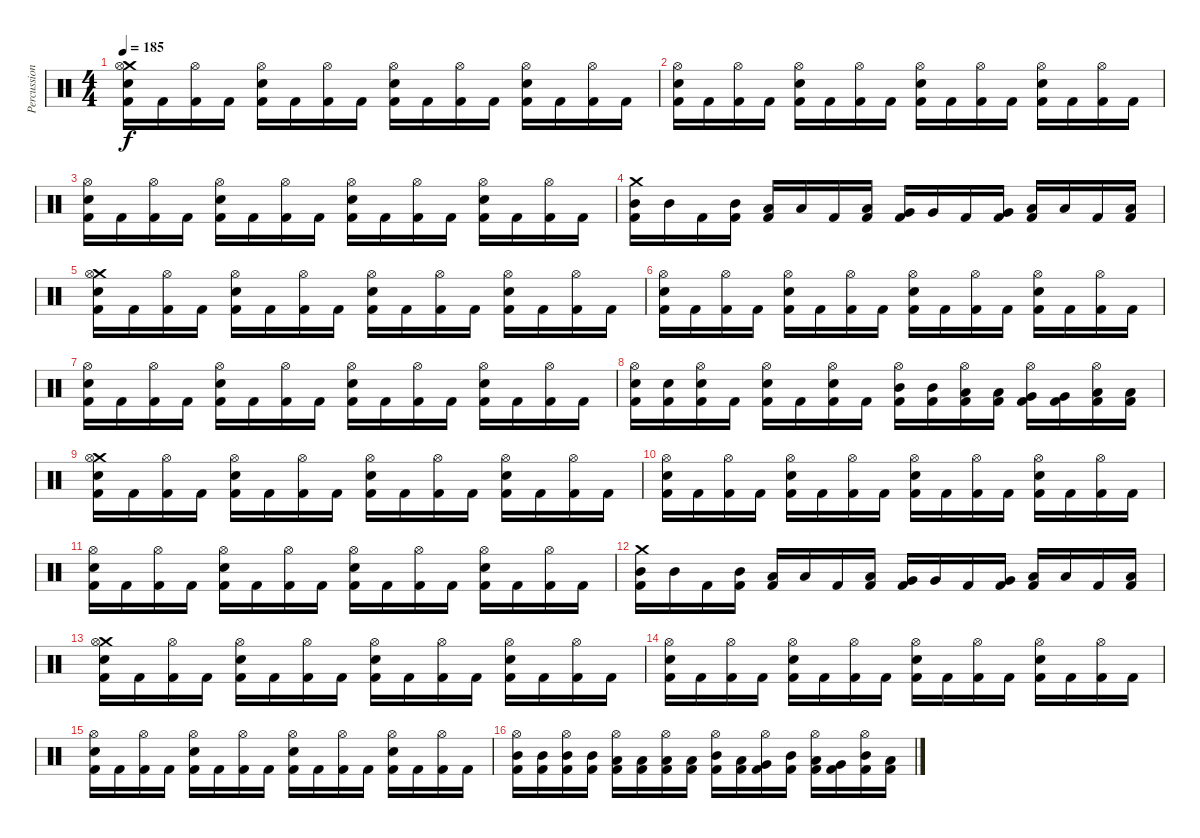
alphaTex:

\track ("Percussion" "Percussion") {instrument percussion}
\staff {score}
\articulation defaults
\ts (4 4)
\tempo 185
\clef neutral
\ks c
("Crash medium (hit)" "Hi-Hat (open)" "Electric Snare (hit)" "Kick (hit) 2").16{dy f} "Kick (hit) 2".16 ("Hi-Hat (open)" "Kick (hit) 2").16 "Kick (hit) 2".16 ("Hi-Hat (open)" "Electric Snare (hit)" "Kick (hit) 2").16 "Kick (hit) 2".16 ("Hi-Hat (open)" "Kick (hit) 2").16 "Kick (hit) 2".16 ("Hi-Hat (open)" "Electric Snare (hit)" "Kick (hit) 2").16 "Kick (hit) 2".16 ("Hi-Hat (open)" "Kick (hit) 2").16 "Kick (hit) 2".16 ("Hi-Hat (open)" "Electric Snare (hit)" "Kick (hit) 2").16 "Kick (hit) 2".16 ("Hi-Hat (open)" "Kick (hit) 2").16 "Kick (hit) 2".16 |
("Hi-Hat (open)" "Electric Snare (hit)" "Kick (hit) 2").16 "Kick (hit) 2".16 ("Hi-Hat (open)" "Kick (hit) 2").16 "Kick (hit) 2".16 ("Hi-Hat (open)" "Electric Snare (hit)" "Kick (hit) 2").16 "Kick (hit) 2".16 ("Hi-Hat (open)" "Kick (hit) 2").16 "Kick (hit) 2".16 ("Hi-Hat (open)" "Electric Snare (hit)" "Kick (hit) 2").16 "Kick (hit) 2".16 ("Hi-Hat (open)" "Kick (hit) 2").16 "Kick (hit) 2".16 ("Hi-Hat (open)" "Electric Snare (hit)" "Kick (hit) 2").16 "Kick (hit) 2".16 ("Hi-Hat (open)" "Kick (hit) 2").16 "Kick (hit) 2".16 |
("Hi-Hat (open)" "Electric Snare (hit)" "Kick (hit) 2").16 "Kick (hit) 2".16 ("Hi-Hat (open)" "Kick (hit) 2").16 "Kick (hit) 2".16 ("Hi-Hat (open)" "Electric Snare (hit)" "Kick (hit) 2").16 "Kick (hit) 2".16 ("Hi-Hat (open)" "Kick (hit) 2").16 "Kick (hit) 2".16 ("Hi-Hat (open)" "Electric Snare (hit)" "Kick (hit) 2").16 "Kick (hit) 2".16 ("Hi-Hat (open)" "Kick (hit) 2").16 "Kick (hit) 2".16 ("Hi-Hat (open)" "Electric Snare (hit)" "Kick (hit) 2").16 "Kick (hit) 2".16 ("Hi-Hat (open)" "Kick (hit) 2").16 "Kick (hit) 2".16 |
("Crash medium (hit)" "Mid Tom (hit)" "Kick (hit) 2").16 "Mid Tom (hit)".16 "Kick (hit) 2".16 ("Mid Tom (hit)" "Kick (hit) 2").16 ("Low Tom (hit)" "Kick (hit) 2").16 "Low Tom (hit)".16 "Kick (hit) 2".16 ("Low Tom (hit)" "Kick (hit) 2").16 ("Very Low Tom (hit)" "Kick (hit) 2").16 "Very Low Tom (hit)".16 "Kick (hit) 2".16 ("Very Low Tom (hit)" "Kick (hit) 2").16 ("Low Floor Tom (hit)" "Kick (hit) 2").16 "Low Floor Tom (hit)".16 "Kick (hit) 2".16 ("Low Floor Tom (hit)" "Kick (hit) 2").16 |
("Crash medium (hit)" "Hi-Hat (open)" "Electric Snare (hit)" "Kick (hit) 2").16 "Kick (hit) 2".16 ("Hi-Hat (open)" "Kick (hit) 2").16 "Kick (hit) 2".16 ("Hi-Hat (open)" "Electric Snare (hit)" "Kick (hit) 2").16 "Kick (hit) 2".16 ("Hi-Hat (open)" "Kick (hit) 2").16 "Kick (hit) 2".16 ("Hi-Hat (open)" "Electric Snare (hit)" "Kick (hit) 2").16 "Kick (hit) 2".16 ("Hi-Hat (open)" "Kick (hit) 2").16 "Kick (hit) 2".16 ("Hi-Hat (open)" "Electric Snare (hit)" "Kick (hit) 2").16 "Kick (hit) 2".16 ("Hi-Hat (open)" "Kick (hit) 2").16 "Kick (hit) 2".16 |
("Hi-Hat (open)" "Electric Snare (hit)" "Kick (hit) 2").16 "Kick (hit) 2".16 ("Hi-Hat (open)" "Kick (hit) 2").16 "Kick (hit) 2".16 ("Hi-Hat (open)" "Electric Snare (hit)" "Kick (hit) 2").16 "Kick (hit) 2".16 ("Hi-Hat (open)" "Kick (hit) 2").16 "Kick (hit) 2".16 ("Hi-Hat (open)" "Electric Snare (hit)" "Kick (hit) 2").16 "Kick (hit) 2".16 ("Hi-Hat (open)" "Kick (hit) 2").16 "Kick (hit) 2".16 ("Hi-Hat (open)" "Electric Snare (hit)" "Kick (hit) 2").16 "Kick (hit) 2".16 ("Hi-Hat (open)" "Kick (hit) 2").16 "Kick (hit) 2".16 |
("Hi-Hat (open)" "Electric Snare (hit)" "Kick (hit) 2").16 "Kick (hit) 2".16 ("Hi-Hat (open)" "Kick (hit) 2").16 "Kick (hit) 2".16 ("Hi-Hat (open)" "Electric Snare (hit)" "Kick (hit) 2").16 "Kick (hit) 2".16 ("Hi-Hat (open)" "Kick (hit) 2").16 "Kick (hit) 2".16 ("Hi-Hat (open)" "Electric Snare (hit)" "Kick (hit) 2").16 "Kick (hit) 2".16 ("Hi-Hat (open)" "Kick (hit) 2").16 "Kick (hit) 2".16 ("Hi-Hat (open)" "Electric Snare (hit)" "Kick (hit) 2").16 "Kick (hit) 2".16 ("Hi-Hat (open)" "Kick (hit) 2").16 "Kick (hit) 2".16 |
("Hi-Hat (open)" "Electric Snare (hit)" "Kick (hit) 2").16 ("Electric Snare (hit)" "Kick (hit) 2").16 ("Hi-Hat (open)" "Electric Snare (hit)" "Kick (hit) 2").16 "Kick (hit) 2".16 ("Hi-Hat (open)" "Electric Snare (hit)" "Kick (hit) 2").16 "Kick (hit) 2".16 ("Hi-Hat (open)" "Electric Snare (hit)" "Kick (hit) 2").16 "Kick (hit) 2".16 ("Hi-Hat (open)" "Mid Tom (hit)" "Kick (hit) 2").16 ("Mid Tom (hit)" "Kick (hit) 2").16 ("Hi-Hat (open)" "Low Tom (hit)" "Kick (hit) 2").16 ("Low Tom (hit)" "Kick (hit) 2").16 ("Hi-Hat (open)" "Very Low Tom (hit)" "Kick (hit) 2").16 ("Very Low Tom (hit)" "Kick (hit) 2").16 ("Hi-Hat (open)" "Low Floor Tom (hit)" "Kick (hit) 2").16 ("Low Floor Tom (hit)" "Kick (hit) 2").16 |
("Crash medium (hit)" "Hi-Hat (open)" "Electric Snare (hit)" "Kick (hit) 2").16 "Kick (hit) 2".16 ("Hi-Hat (open)" "Kick (hit) 2").16 "Kick (hit) 2".16 ("Hi-Hat (open)" "Electric Snare (hit)" "Kick (hit) 2").16 "Kick (hit) 2".16 ("Hi-Hat (open)" "Kick (hit) 2").16 "Kick (hit) 2".16 ("Hi-Hat (open)" "Electric Snare (hit)" "Kick (hit) 2").16 "Kick (hit) 2".16 ("Hi-Hat (open)" "Kick (hit) 2").16 "Kick (hit) 2".16 ("Hi-Hat (open)" "Electric Snare (hit)" "Kick (hit) 2").16 "Kick (hit) 2".16 ("Hi-Hat (open)" "Kick (hit) 2").16 "Kick (hit) 2".16 |
("Hi-Hat (open)" "Electric Snare (hit)" "Kick (hit) 2").16 "Kick (hit) 2".16 ("Hi-Hat (open)" "Kick (hit) 2").16 "Kick (hit) 2".16 ("Hi-Hat (open)" "Electric Snare (hit)" "Kick (hit) 2").16 "Kick (hit) 2".16 ("Hi-Hat (open)" "Kick (hit) 2").16 "Kick (hit) 2".16 ("Hi-Hat (open)" "Electric Snare (hit)" "Kick (hit) 2").16 "Kick (hit) 2".16 ("Hi-Hat (open)" "Kick (hit) 2").16 "Kick (hit) 2".16 ("Hi-Hat (open)" "Electric Snare (hit)" "Kick (hit) 2").16 "Kick (hit) 2".16 ("Hi-Hat (open)" "Kick (hit) 2").16 "Kick (hit) 2".16 |
("Hi-Hat (open)" "Electric Snare (hit)" "Kick (hit) 2").16 "Kick (hit) 2".16 ("Hi-Hat (open)" "Kick (hit) 2").16 "Kick (hit) 2".16 ("Hi-Hat (open)" "Electric Snare (hit)" "Kick (hit) 2").16 "Kick (hit) 2".16 ("Hi-Hat (open)" "Kick (hit) 2").16 "Kick (hit) 2".16 ("Hi-Hat (open)" "Electric Snare (hit)" "Kick (hit) 2").16 "Kick (hit) 2".16 ("Hi-Hat (open)" "Kick (hit) 2").16 "Kick (hit) 2".16 ("Hi-Hat (open)" "Electric Snare (hit)" "Kick (hit) 2").16 "Kick (hit) 2".16 ("Hi-Hat (open)" "Kick (hit) 2").16 "Kick (hit) 2".16 |
("Crash medium (hit)" "Mid Tom (hit)" "Kick (hit) 2").16 "Mid Tom (hit)".16 "Kick (hit) 2".16 ("Mid Tom (hit)" "Kick (hit) 2").16 ("Low Tom (hit)" "Kick (hit) 2").16 "Low Tom (hit)".16 "Kick (hit) 2".16 ("Low Tom (hit)" "Kick (hit) 2").16 ("Very Low Tom (hit)" "Kick (hit) 2").16 "Very Low Tom (hit)".16 "Kick (hit) 2".16 ("Very Low Tom (hit)" "Kick (hit) 2").16 ("Low Floor Tom (hit)" "Kick (hit) 2").16 "Low Floor Tom (hit)".16 "Kick (hit) 2".16 ("Low Floor Tom (hit)" "Kick (hit) 2").16 |
("Crash medium (hit)" "Hi-Hat (open)" "Electric Snare (hit)" "Kick (hit) 2").16 "Kick (hit) 2".16 ("Hi-Hat (open)" "Kick (hit) 2").16 "Kick (hit) 2".16 ("Hi-Hat (open)" "Electric Snare (hit)" "Kick (hit) 2").16 "Kick (hit) 2".16 ("Hi-Hat (open)" "Kick (hit) 2").16 "Kick (hit) 2".16 ("Hi-Hat (open)" "Electric Snare (hit)" "Kick (hit) 2").16 "Kick (hit) 2".16 ("Hi-Hat (open)" "Kick (hit) 2").16 "Kick (hit) 2".16 ("Hi-Hat (open)" "Electric Snare (hit)" "Kick (hit) 2").16 "Kick (hit) 2".16 ("Hi-Hat (open)" "Kick (hit) 2").16 "Kick (hit) 2".16 |
("Hi-Hat (open)" "Electric Snare (hit)" "Kick (hit) 2").16 "Kick (hit) 2".16 ("Hi-Hat (open)" "Kick (hit) 2").16 "Kick (hit) 2".16 ("Hi-Hat (open)" "Electric Snare (hit)" "Kick (hit) 2").16 "Kick (hit) 2".16 ("Hi-Hat (open)" "Kick (hit) 2").16 "Kick (hit) 2".16 ("Hi-Hat (open)" "Electric Snare (hit)" "Kick (hit) 2").16 "Kick (hit) 2".16 ("Hi-Hat (open)" "Kick (hit) 2").16 "Kick (hit) 2".16 ("Hi-Hat (open)" "Electric Snare (hit)" "Kick (hit) 2").16 "Kick (hit) 2".16 ("Hi-Hat (open)" "Kick (hit) 2").16 "Kick (hit) 2".16 |
("Hi-Hat (open)" "Electric Snare (hit)" "Kick (hit) 2").16 "Kick (hit) 2".16 ("Hi-Hat (open)" "Kick (hit) 2").16 "Kick (hit) 2".16 ("Hi-Hat (open)" "Electric Snare (hit)" "Kick (hit) 2").16 "Kick (hit) 2".16 ("Hi-Hat (open)" "Kick (hit) 2").16 "Kick (hit) 2".16 ("Hi-Hat (open)" "Electric Snare (hit)" "Kick (hit) 2").16 "Kick (hit) 2".16 ("Hi-Hat (open)" "Kick (hit) 2").16 "Kick (hit) 2".16 ("Hi-Hat (open)" "Electric Snare (hit)" "Kick (hit) 2").16 "Kick (hit) 2".16 ("Hi-Hat (open)" "Kick (hit) 2").16 "Kick (hit) 2".16 |
("Hi-Hat (open)" "Mid Tom (hit)" "Kick (hit) 2").16 ("Mid Tom (hit)" "Kick (hit) 2").16 ("Hi-Hat (open)" "Mid Tom (hit)" "Kick (hit) 2").16 ("Mid Tom (hit)" "Kick (hit) 2").16 ("Hi-Hat (open)" "Low Tom (hit)" "Kick (hit) 2").16 ("Low Tom (hit)" "Kick (hit) 2").16 ("Hi-Hat (open)" "Low Tom (hit)" "Kick (hit) 2").16 ("Low Tom (hit)" "Kick (hit) 2").16 ("Hi-Hat (open)" "Mid Tom (hit)" "Kick (hit) 2").16 ("Low Tom (hit)" "Kick (hit) 2").16 ("Hi-Hat (open)" "Very Low Tom (hit)" "Kick (hit) 2").16 ("Mid Tom (hit)" "Kick (hit) 2").16 ("Hi-Hat (open)" "Low Tom (hit)" "Kick (hit) 2").16 ("Very Low Tom (hit)" "Kick (hit) 2").16 ("Hi-Hat (open)" "Mid Tom (hit)" "Kick (hit) 2").16 ("Low Tom (hit)" "Kick (hit) 2").16
